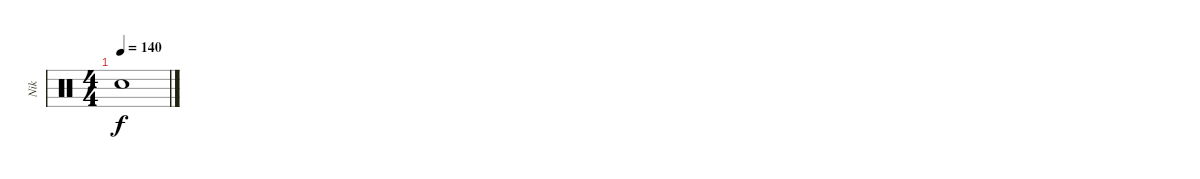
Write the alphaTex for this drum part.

\track ("Nik" "Nik") {instrument percussion}
\staff {score}
\articulation defaults
\ts (4 4)
\tempo 140
\clef neutral
\ks c "Snare (hit)"{t}.1{dy f}
